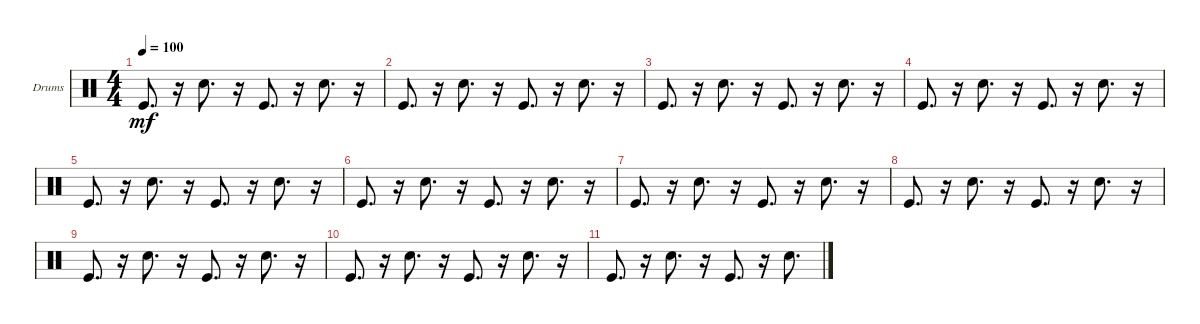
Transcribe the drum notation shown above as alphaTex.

\bracketExtendMode groupsimilarinstruments
\firstSystemTrackNameOrientation horizontal
\otherSystemsTrackNameOrientation horizontal
\track ("Bass Percussion" "Drums") {instrument percussion}
\staff {score}
\articulation defaults
\ts (4 4)
\tempo 100
\clef neutral
\ks c "Kick (hit)".8{d dy mf}
r.16 "Snare (hit) 2".8{d} r.16 "Kick (hit)".8{d} r.16 "Snare (hit) 2".8{d} r.16 |
"Kick (hit)".8{d} r.16 "Snare (hit) 2".8{d} r.16 "Kick (hit)".8{d} r.16 "Snare (hit) 2".8{d} r.16 |
"Kick (hit)".8{d} r.16 "Snare (hit) 2".8{d} r.16 "Kick (hit)".8{d} r.16 "Snare (hit) 2".8{d} r.16 |
"Kick (hit)".8{d} r.16 "Snare (hit) 2".8{d} r.16 "Kick (hit)".8{d} r.16 "Snare (hit) 2".8{d} r.16 |
"Kick (hit)".8{d} r.16 "Snare (hit) 2".8{d} r.16 "Kick (hit)".8{d} r.16 "Snare (hit) 2".8{d} r.16 |
"Kick (hit)".8{d} r.16 "Snare (hit) 2".8{d} r.16 "Kick (hit)".8{d} r.16 "Snare (hit) 2".8{d} r.16 |
"Kick (hit)".8{d} r.16 "Snare (hit) 2".8{d} r.16 "Kick (hit)".8{d} r.16 "Snare (hit) 2".8{d} r.16 |
"Kick (hit)".8{d} r.16 "Snare (hit) 2".8{d} r.16 "Kick (hit)".8{d} r.16 "Snare (hit) 2".8{d} r.16 |
"Kick (hit)".8{d} r.16 "Snare (hit) 2".8{d} r.16 "Kick (hit)".8{d} r.16 "Snare (hit) 2".8{d} r.16 |
"Kick (hit)".8{d} r.16 "Snare (hit) 2".8{d} r.16 "Kick (hit)".8{d} r.16 "Snare (hit) 2".8{d} r.16 |
"Kick (hit)".8{d} r.16 "Snare (hit) 2".8{d} r.16 "Kick (hit)".8{d} r.16 "Snare (hit) 2".8{d}
